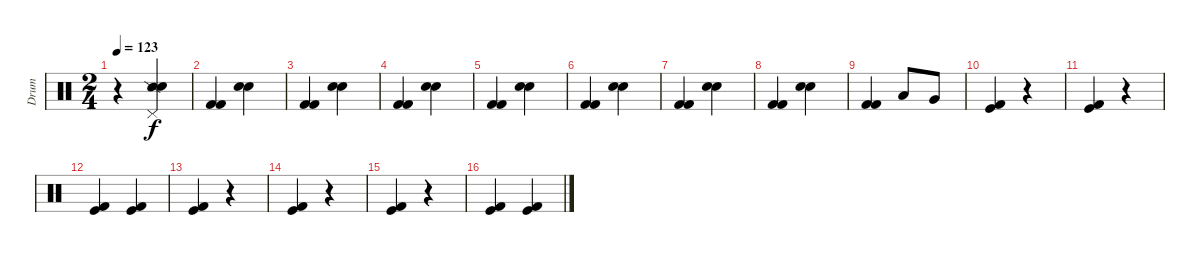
\track ("Drum" "Drum") {instrument percussion}
\staff {score}
\articulation defaults
\ts (2 4)
\tempo 123
\clef neutral
\ks c
r.4{dy f} ("Snare (side stick) 2" "Snare (hit) 2" "Pedal Hi-Hat (hit)").4 |
("Kick (hit) 2" "Kick (hit) 2").4 ("Snare (hit) 2" "Snare (hit) 2").4 |
("Kick (hit) 2" "Kick (hit) 2").4 ("Snare (hit) 2" "Snare (hit) 2").4 |
("Kick (hit) 2" "Kick (hit) 2").4 ("Snare (hit) 2" "Snare (hit) 2").4 |
("Kick (hit) 2" "Kick (hit) 2").4 ("Snare (hit) 2" "Snare (hit) 2").4 |
("Kick (hit) 2" "Kick (hit) 2").4 ("Snare (hit) 2" "Snare (hit) 2").4 |
("Kick (hit) 2" "Kick (hit) 2").4 ("Snare (hit) 2" "Snare (hit) 2").4 |
("Kick (hit) 2" "Kick (hit) 2").4 ("Snare (hit) 2" "Snare (hit) 2").4 |
("Kick (hit) 2" "Kick (hit) 2").4 "Low Tom (hit)".8 "Very Low Tom (hit)".8 |
("Kick (hit)" "Kick (hit) 2").4 r.4 |
("Kick (hit)" "Kick (hit) 2").4 r.4 |
("Kick (hit)" "Kick (hit) 2").4 ("Kick (hit)" "Kick (hit) 2").4 |
("Kick (hit)" "Kick (hit) 2").4 r.4 |
("Kick (hit)" "Kick (hit) 2").4 r.4 |
("Kick (hit)" "Kick (hit) 2").4 r.4 |
("Kick (hit)" "Kick (hit) 2").4 ("Kick (hit)" "Kick (hit) 2").4
